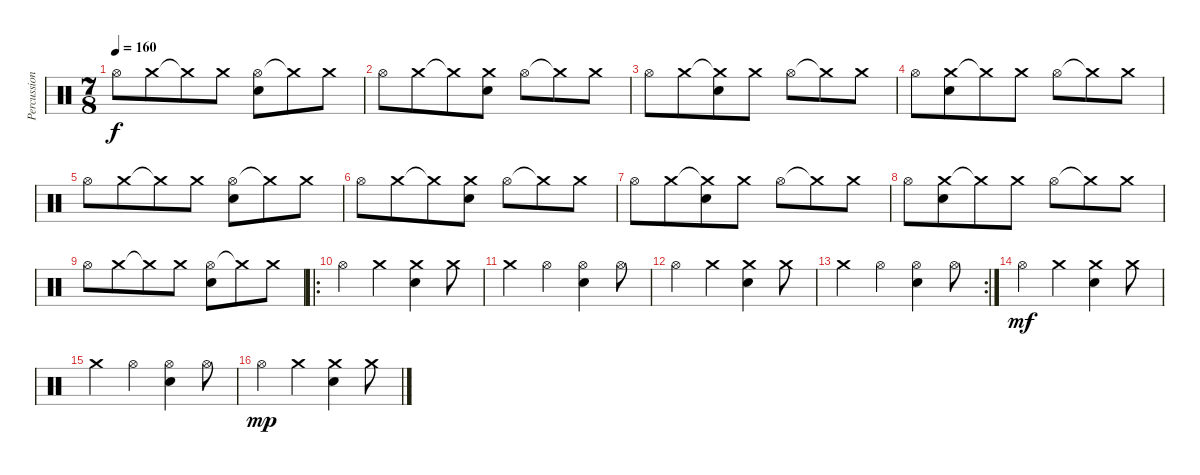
\track ("Percussion" "Percussion") {instrument percussion}
\staff {score}
\articulation defaults
\ts (7 8)
\tempo 160
\clef neutral
\ks c "Hi-Hat (open)".8{dy f} "Crash medium (hit)".8 "Crash medium (hit)"{t}.8 "Crash medium (hit)".8
("Hi-Hat (open)" "Snare (hit) 2").8 "Crash medium (hit)"{t}.8 "Crash medium (hit)".8 |
"Hi-Hat (open)".8 "Crash medium (hit)".8 "Crash medium (hit)"{t}.8 ("Crash medium (hit)" "Snare (hit) 2").8 "Hi-Hat (open)".8 "Crash medium (hit)"{t}.8 "Crash medium (hit)".8 |
"Hi-Hat (open)".8 "Crash medium (hit)".8 ("Crash medium (hit)"{t} "Snare (hit) 2").8 "Crash medium (hit)".8 "Hi-Hat (open)".8 "Crash medium (hit)"{t}.8 "Crash medium (hit)".8 |
"Hi-Hat (open)".8 ("Crash medium (hit)" "Snare (hit) 2").8 "Crash medium (hit)"{t}.8 "Crash medium (hit)".8 "Hi-Hat (open)".8 "Crash medium (hit)"{t}.8 "Crash medium (hit)".8 |
"Hi-Hat (open)".8 "Crash medium (hit)".8 "Crash medium (hit)"{t}.8 "Crash medium (hit)".8 ("Hi-Hat (open)" "Snare (hit) 2").8 "Crash medium (hit)"{t}.8 "Crash medium (hit)".8 |
"Hi-Hat (open)".8 "Crash medium (hit)".8 "Crash medium (hit)"{t}.8 ("Crash medium (hit)" "Snare (hit) 2").8 "Hi-Hat (open)".8 "Crash medium (hit)"{t}.8 "Crash medium (hit)".8 |
"Hi-Hat (open)".8 "Crash medium (hit)".8 ("Crash medium (hit)"{t} "Snare (hit) 2").8 "Crash medium (hit)".8 "Hi-Hat (open)".8 "Crash medium (hit)"{t}.8 "Crash medium (hit)".8 |
"Hi-Hat (open)".8 ("Crash medium (hit)" "Snare (hit) 2").8 "Crash medium (hit)"{t}.8 "Crash medium (hit)".8 "Hi-Hat (open)".8 "Crash medium (hit)"{t}.8 "Crash medium (hit)".8 |
"Hi-Hat (open)".8 "Crash medium (hit)".8 "Crash medium (hit)"{t}.8 "Crash medium (hit)".8 ("Hi-Hat (open)" "Snare (hit) 2").8 "Crash medium (hit)"{t}.8 "Crash medium (hit)".8 |
\ro "Hi-Hat (open)".4 "Crash medium (hit)".4
("Crash medium (hit)" "Snare (hit) 2").4 "Crash medium (hit)".8 |
"Crash medium (hit)".4 "Hi-Hat (open)".4 ("Hi-Hat (open)" "Snare (hit) 2").4 "Hi-Hat (open)".8 |
"Hi-Hat (open)".4 "Crash medium (hit)".4 ("Crash medium (hit)" "Snare (hit) 2").4 "Crash medium (hit)".8 |
\rc 2 "Crash medium (hit)".4 "Hi-Hat (open)".4
("Hi-Hat (open)" "Snare (hit) 2").4 "Hi-Hat (open)".8 |
"Hi-Hat (open)".4{dy mf} "Crash medium (hit)".4 ("Crash medium (hit)" "Snare (hit) 2").4 "Crash medium (hit)".8 |
"Crash medium (hit)".4 "Hi-Hat (open)".4 ("Hi-Hat (open)" "Snare (hit) 2").4 "Hi-Hat (open)".8 |
"Hi-Hat (open)".4{dy mp} "Crash medium (hit)".4 ("Crash medium (hit)" "Snare (hit) 2").4 "Crash medium (hit)".8
